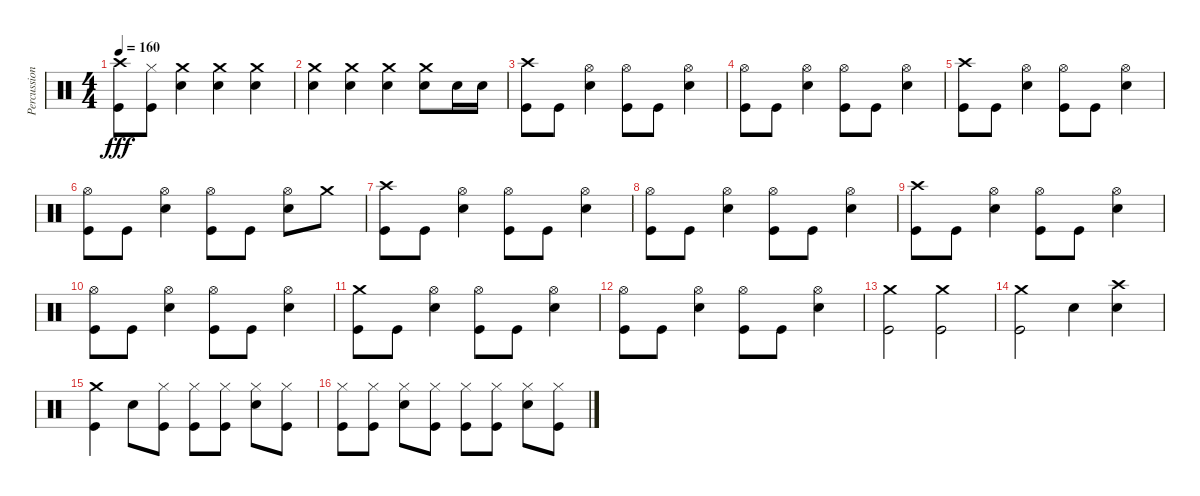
\track ("Percussions" "Percussion") {instrument percussion}
\staff {score}
\articulation defaults
\ts (4 4)
\tempo 160
\clef neutral
\ks c
("Crash high (hit)" "Kick (hit)").8{dy fff} ("Hi-Hat (closed)" "Kick (hit)").8 ("Crash medium (hit)" "Electric Snare (hit)").4 ("Crash medium (hit)" "Electric Snare (hit)").4 ("Crash medium (hit)" "Electric Snare (hit)").4 |
("Crash medium (hit)" "Electric Snare (hit)").4 ("Crash medium (hit)" "Electric Snare (hit)").4 ("Crash medium (hit)" "Electric Snare (hit)").4 ("Crash medium (hit)" "Electric Snare (hit)").8 "Electric Snare (hit)".16 "Electric Snare (hit)".16 |
("Crash high (hit)" "Kick (hit)").8 "Kick (hit)".8 ("Hi-Hat (open)" "Electric Snare (hit)").4 ("Hi-Hat (open)" "Kick (hit)").8 "Kick (hit)".8 ("Hi-Hat (open)" "Electric Snare (hit)").4 |
("Hi-Hat (open)" "Kick (hit)").8 "Kick (hit)".8 ("Hi-Hat (open)" "Electric Snare (hit)").4 ("Hi-Hat (open)" "Kick (hit)").8 "Kick (hit)".8 ("Hi-Hat (open)" "Electric Snare (hit)").4 |
("Crash high (hit)" "Kick (hit)").8 "Kick (hit)".8 ("Hi-Hat (open)" "Electric Snare (hit)").4 ("Hi-Hat (open)" "Kick (hit)").8 "Kick (hit)".8 ("Hi-Hat (open)" "Electric Snare (hit)").4 |
("Hi-Hat (open)" "Kick (hit)").8 "Kick (hit)".8 ("Hi-Hat (open)" "Electric Snare (hit)").4 ("Hi-Hat (open)" "Kick (hit)").8 "Kick (hit)".8 ("Hi-Hat (open)" "Electric Snare (hit)").8 "Crash medium (hit)".8 |
("Crash high (hit)" "Kick (hit)").8 "Kick (hit)".8 ("Hi-Hat (open)" "Electric Snare (hit)").4 ("Hi-Hat (open)" "Kick (hit)").8 "Kick (hit)".8 ("Hi-Hat (open)" "Electric Snare (hit)").4 |
("Hi-Hat (open)" "Kick (hit)").8 "Kick (hit)".8 ("Hi-Hat (open)" "Electric Snare (hit)").4 ("Hi-Hat (open)" "Kick (hit)").8 "Kick (hit)".8 ("Hi-Hat (open)" "Electric Snare (hit)").4 |
("Crash high (hit)" "Kick (hit)").8 "Kick (hit)".8 ("Hi-Hat (open)" "Electric Snare (hit)").4 ("Hi-Hat (open)" "Kick (hit)").8 "Kick (hit)".8 ("Hi-Hat (open)" "Electric Snare (hit)").4 |
("Hi-Hat (open)" "Kick (hit)").8 "Kick (hit)".8 ("Hi-Hat (open)" "Electric Snare (hit)").4 ("Hi-Hat (open)" "Kick (hit)").8 "Kick (hit)".8 ("Hi-Hat (open)" "Electric Snare (hit)").4 |
("Crash medium (hit)" "Kick (hit)").8 "Kick (hit)".8 ("Hi-Hat (open)" "Electric Snare (hit)").4 ("Hi-Hat (open)" "Kick (hit)").8 "Kick (hit)".8 ("Hi-Hat (open)" "Electric Snare (hit)").4 |
("Hi-Hat (open)" "Kick (hit)").8 "Kick (hit)".8 ("Hi-Hat (open)" "Electric Snare (hit)").4 ("Hi-Hat (open)" "Kick (hit)").8 "Kick (hit)".8 ("Hi-Hat (open)" "Electric Snare (hit)").4 |
("Crash medium (hit)" "Kick (hit)").2 ("Crash medium (hit)" "Kick (hit)").2 |
("Crash medium (hit)" "Kick (hit)").2 "Electric Snare (hit)".4 ("Crash high (hit)" "Electric Snare (hit)").4 |
("Crash medium (hit)" "Kick (hit)").4 "Electric Snare (hit)".8 ("Hi-Hat (closed)" "Kick (hit)").8 ("Hi-Hat (closed)" "Kick (hit)").8 ("Hi-Hat (closed)" "Kick (hit)").8 ("Hi-Hat (closed)" "Electric Snare (hit)").8 ("Hi-Hat (closed)" "Kick (hit)").8 |
("Hi-Hat (closed)" "Kick (hit)").8 ("Hi-Hat (closed)" "Kick (hit)").8 ("Hi-Hat (closed)" "Electric Snare (hit)").8 ("Hi-Hat (closed)" "Kick (hit)").8 ("Hi-Hat (closed)" "Kick (hit)").8 ("Hi-Hat (closed)" "Kick (hit)").8 ("Hi-Hat (closed)" "Electric Snare (hit)").8 ("Hi-Hat (closed)" "Kick (hit)").8
